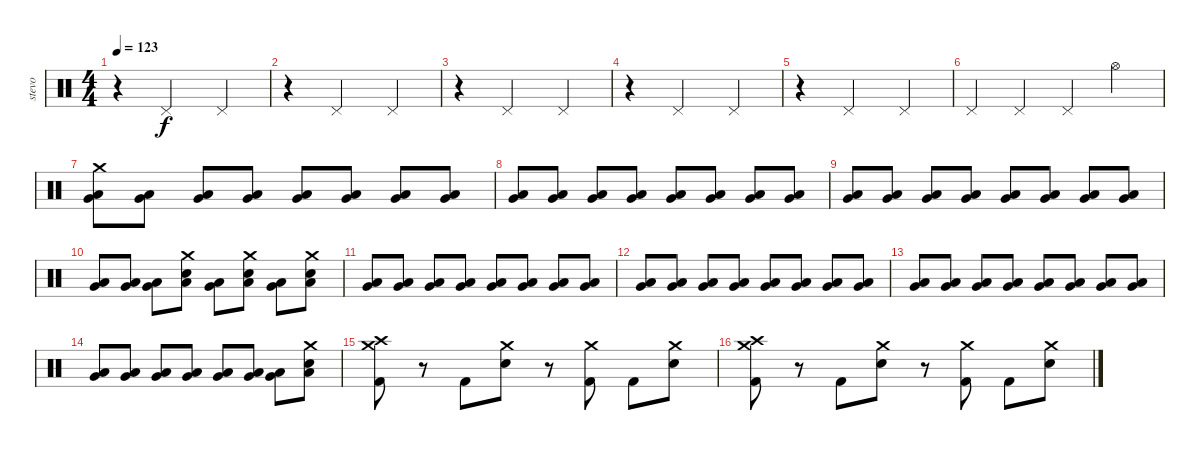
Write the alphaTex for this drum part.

\track ("stevo" "stevo") {instrument percussion}
\staff {score}
\articulation defaults
\ts (4 4)
\tempo 123
\clef neutral
\ks c
r.4{dy f} "Pedal Hi-Hat (hit)".2 "Pedal Hi-Hat (hit)".4 |
r.4 "Pedal Hi-Hat (hit)".2 "Pedal Hi-Hat (hit)".4 |
r.4 "Pedal Hi-Hat (hit)".2 "Pedal Hi-Hat (hit)".4 |
r.4 "Pedal Hi-Hat (hit)".2 "Pedal Hi-Hat (hit)".4 |
r.4 "Pedal Hi-Hat (hit)".2 "Pedal Hi-Hat (hit)".4 |
"Pedal Hi-Hat (hit)".4 "Pedal Hi-Hat (hit)".4 "Pedal Hi-Hat (hit)".4 "Hi-Hat (open)".4 |
("Crash medium (hit)" "Very Low Tom (hit)" "Low Floor Tom (hit)").8 ("Very Low Tom (hit)" "Low Floor Tom (hit)").8 ("Very Low Tom (hit)" "Low Floor Tom (hit)").8 ("Very Low Tom (hit)" "Low Floor Tom (hit)").8 ("Very Low Tom (hit)" "Low Floor Tom (hit)").8 ("Very Low Tom (hit)" "Low Floor Tom (hit)").8 ("Very Low Tom (hit)" "Low Floor Tom (hit)").8 ("Very Low Tom (hit)" "Low Floor Tom (hit)").8 |
("Very Low Tom (hit)" "Low Floor Tom (hit)").8 ("Very Low Tom (hit)" "Low Floor Tom (hit)").8 ("Very Low Tom (hit)" "Low Floor Tom (hit)").8 ("Very Low Tom (hit)" "Low Floor Tom (hit)").8 ("Very Low Tom (hit)" "Low Floor Tom (hit)").8 ("Very Low Tom (hit)" "Low Floor Tom (hit)").8 ("Very Low Tom (hit)" "Low Floor Tom (hit)").8 ("Very Low Tom (hit)" "Low Floor Tom (hit)").8 |
("Very Low Tom (hit)" "Low Floor Tom (hit)").8 ("Very Low Tom (hit)" "Low Floor Tom (hit)").8 ("Very Low Tom (hit)" "Low Floor Tom (hit)").8 ("Very Low Tom (hit)" "Low Floor Tom (hit)").8 ("Very Low Tom (hit)" "Low Floor Tom (hit)").8 ("Very Low Tom (hit)" "Low Floor Tom (hit)").8 ("Very Low Tom (hit)" "Low Floor Tom (hit)").8 ("Very Low Tom (hit)" "Low Floor Tom (hit)").8 |
("Very Low Tom (hit)" "Low Floor Tom (hit)").8 ("Very Low Tom (hit)" "Low Floor Tom (hit)").8 ("Very Low Tom (hit)" "Low Floor Tom (hit)").8 ("Crash medium (hit)" "Electric Snare (hit)" "Low Floor Tom (hit)").8 ("Very Low Tom (hit)" "Low Floor Tom (hit)").8 ("Crash medium (hit)" "Electric Snare (hit)" "Low Floor Tom (hit)").8 ("Very Low Tom (hit)" "Low Floor Tom (hit)").8 ("Crash medium (hit)" "Electric Snare (hit)" "Low Floor Tom (hit)").8 |
("Very Low Tom (hit)" "Low Floor Tom (hit)").8 ("Very Low Tom (hit)" "Low Floor Tom (hit)").8 ("Very Low Tom (hit)" "Low Floor Tom (hit)").8 ("Very Low Tom (hit)" "Low Floor Tom (hit)").8 ("Very Low Tom (hit)" "Low Floor Tom (hit)").8 ("Very Low Tom (hit)" "Low Floor Tom (hit)").8 ("Very Low Tom (hit)" "Low Floor Tom (hit)").8 ("Very Low Tom (hit)" "Low Floor Tom (hit)").8 |
("Very Low Tom (hit)" "Low Floor Tom (hit)").8 ("Very Low Tom (hit)" "Low Floor Tom (hit)").8 ("Very Low Tom (hit)" "Low Floor Tom (hit)").8 ("Very Low Tom (hit)" "Low Floor Tom (hit)").8 ("Very Low Tom (hit)" "Low Floor Tom (hit)").8 ("Very Low Tom (hit)" "Low Floor Tom (hit)").8 ("Very Low Tom (hit)" "Low Floor Tom (hit)").8 ("Very Low Tom (hit)" "Low Floor Tom (hit)").8 |
("Very Low Tom (hit)" "Low Floor Tom (hit)").8 ("Very Low Tom (hit)" "Low Floor Tom (hit)").8 ("Very Low Tom (hit)" "Low Floor Tom (hit)").8 ("Very Low Tom (hit)" "Low Floor Tom (hit)").8 ("Very Low Tom (hit)" "Low Floor Tom (hit)").8 ("Very Low Tom (hit)" "Low Floor Tom (hit)").8 ("Very Low Tom (hit)" "Low Floor Tom (hit)").8 ("Very Low Tom (hit)" "Low Floor Tom (hit)").8 |
("Very Low Tom (hit)" "Low Floor Tom (hit)").8 ("Very Low Tom (hit)" "Low Floor Tom (hit)").8 ("Very Low Tom (hit)" "Low Floor Tom (hit)").8 ("Very Low Tom (hit)" "Low Floor Tom (hit)").8 ("Very Low Tom (hit)" "Low Floor Tom (hit)").8 ("Very Low Tom (hit)" "Low Floor Tom (hit)").8 ("Very Low Tom (hit)" "Low Floor Tom (hit)").8 ("Crash medium (hit)" "Electric Snare (hit)" "Low Floor Tom (hit)").8 |
("Crash high (hit)" "Crash medium (hit)" "Kick (hit) 2").8 r.8 "Kick (hit) 2".8 ("Crash medium (hit)" "Electric Snare (hit)").8 r.8 ("Crash medium (hit)" "Kick (hit) 2").8 "Kick (hit) 2".8 ("Crash medium (hit)" "Electric Snare (hit)").8 |
("Crash high (hit)" "Crash medium (hit)" "Kick (hit) 2").8 r.8 "Kick (hit) 2".8 ("Crash medium (hit)" "Electric Snare (hit)").8 r.8 ("Crash medium (hit)" "Kick (hit) 2").8 "Kick (hit) 2".8 ("Crash medium (hit)" "Electric Snare (hit)").8
